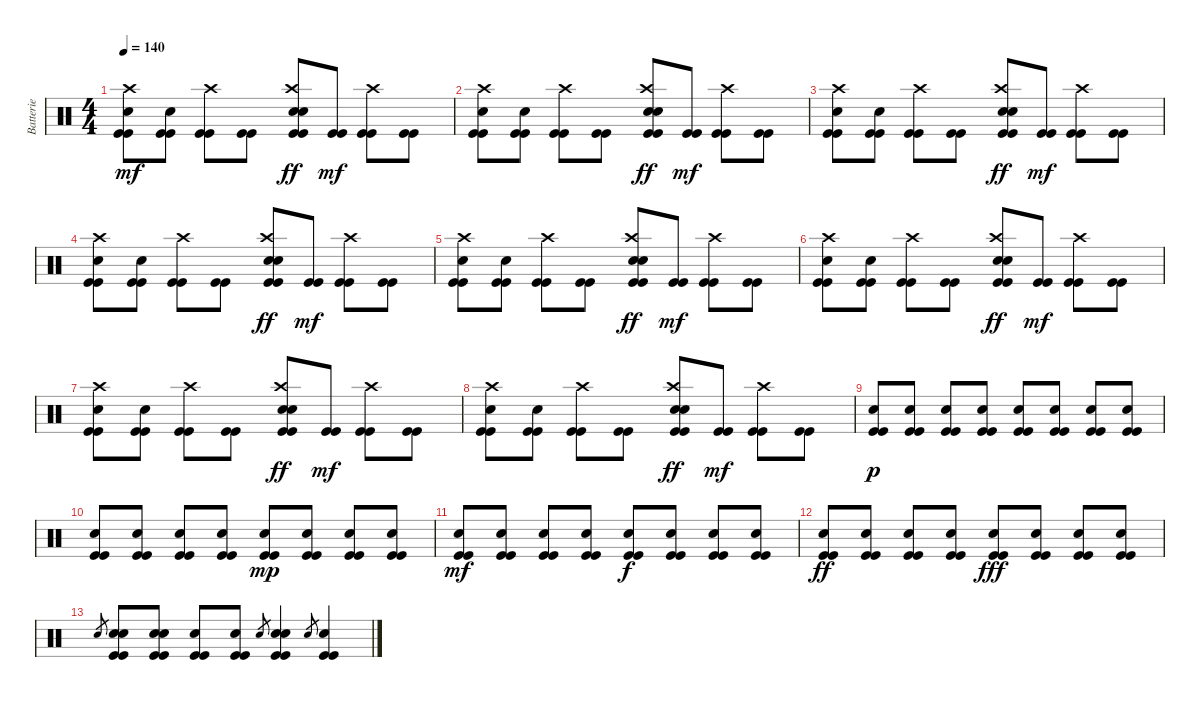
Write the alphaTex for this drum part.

\track ("Batterie " "Batterie ") {instrument percussion}
\staff {score}
\articulation defaults
\ts (4 4)
\tempo 140
\clef neutral
\ks c
("Kick (hit)" "Kick (hit)" "Snare (hit) 2" "Crash high (hit)").8{dy mf} ("Kick (hit)" "Kick (hit)" "Snare (hit) 2").8 ("Kick (hit)" "Kick (hit)" "Crash high (hit)").8 ("Kick (hit)" "Kick (hit)").8 ("Kick (hit)" "Kick (hit)" "Electric Snare (hit)" "Electric Snare (hit)" "Crash high (hit)").8{dy ff} ("Kick (hit)" "Kick (hit)").8{dy mf} ("Kick (hit)" "Kick (hit)" "Crash high (hit)").8 ("Kick (hit)" "Kick (hit)").8 |
("Kick (hit)" "Kick (hit)" "Snare (hit) 2" "Crash high (hit)").8 ("Kick (hit)" "Kick (hit)" "Snare (hit) 2").8 ("Kick (hit)" "Kick (hit)" "Crash high (hit)").8 ("Kick (hit)" "Kick (hit)").8 ("Kick (hit)" "Kick (hit)" "Electric Snare (hit)" "Electric Snare (hit)" "Crash high (hit)").8{dy ff} ("Kick (hit)" "Kick (hit)").8{dy mf} ("Kick (hit)" "Kick (hit)" "Crash high (hit)").8 ("Kick (hit)" "Kick (hit)").8 |
("Kick (hit)" "Kick (hit)" "Snare (hit) 2" "Crash high (hit)").8 ("Kick (hit)" "Kick (hit)" "Snare (hit) 2").8 ("Kick (hit)" "Kick (hit)" "Crash high (hit)").8 ("Kick (hit)" "Kick (hit)").8 ("Kick (hit)" "Kick (hit)" "Electric Snare (hit)" "Electric Snare (hit)" "Crash high (hit)").8{dy ff} ("Kick (hit)" "Kick (hit)").8{dy mf} ("Kick (hit)" "Kick (hit)" "Crash high (hit)").8 ("Kick (hit)" "Kick (hit)").8 |
("Kick (hit)" "Kick (hit)" "Snare (hit) 2" "Crash high (hit)").8 ("Kick (hit)" "Kick (hit)" "Snare (hit) 2").8 ("Kick (hit)" "Kick (hit)" "Crash high (hit)").8 ("Kick (hit)" "Kick (hit)").8 ("Kick (hit)" "Kick (hit)" "Electric Snare (hit)" "Electric Snare (hit)" "Crash high (hit)").8{dy ff} ("Kick (hit)" "Kick (hit)").8{dy mf} ("Kick (hit)" "Kick (hit)" "Crash high (hit)").8 ("Kick (hit)" "Kick (hit)").8 |
("Kick (hit)" "Kick (hit)" "Snare (hit) 2" "Crash high (hit)").8 ("Kick (hit)" "Kick (hit)" "Snare (hit) 2").8 ("Kick (hit)" "Kick (hit)" "Crash high (hit)").8 ("Kick (hit)" "Kick (hit)").8 ("Kick (hit)" "Kick (hit)" "Electric Snare (hit)" "Electric Snare (hit)" "Crash high (hit)").8{dy ff} ("Kick (hit)" "Kick (hit)").8{dy mf} ("Kick (hit)" "Kick (hit)" "Crash high (hit)").8 ("Kick (hit)" "Kick (hit)").8 |
("Kick (hit)" "Kick (hit)" "Snare (hit) 2" "Crash high (hit)").8 ("Kick (hit)" "Kick (hit)" "Snare (hit) 2").8 ("Kick (hit)" "Kick (hit)" "Crash high (hit)").8 ("Kick (hit)" "Kick (hit)").8 ("Kick (hit)" "Kick (hit)" "Electric Snare (hit)" "Electric Snare (hit)" "Crash high (hit)").8{dy ff} ("Kick (hit)" "Kick (hit)").8{dy mf} ("Kick (hit)" "Kick (hit)" "Crash high (hit)").8 ("Kick (hit)" "Kick (hit)").8 |
("Kick (hit)" "Kick (hit)" "Snare (hit) 2" "Crash high (hit)").8 ("Kick (hit)" "Kick (hit)" "Snare (hit) 2").8 ("Kick (hit)" "Kick (hit)" "Crash high (hit)").8 ("Kick (hit)" "Kick (hit)").8 ("Kick (hit)" "Kick (hit)" "Electric Snare (hit)" "Electric Snare (hit)" "Crash high (hit)").8{dy ff} ("Kick (hit)" "Kick (hit)").8{dy mf} ("Kick (hit)" "Kick (hit)" "Crash high (hit)").8 ("Kick (hit)" "Kick (hit)").8 |
("Kick (hit)" "Kick (hit)" "Snare (hit) 2" "Crash high (hit)").8 ("Kick (hit)" "Kick (hit)" "Snare (hit) 2").8 ("Kick (hit)" "Kick (hit)" "Crash high (hit)").8 ("Kick (hit)" "Kick (hit)").8 ("Kick (hit)" "Kick (hit)" "Electric Snare (hit)" "Electric Snare (hit)" "Crash high (hit)").8{dy ff} ("Kick (hit)" "Kick (hit)").8{dy mf} ("Kick (hit)" "Kick (hit)" "Crash high (hit)").8 ("Kick (hit)" "Kick (hit)").8 |
("Kick (hit)" "Kick (hit)" "Electric Snare (hit)").8{dy p} ("Kick (hit)" "Kick (hit)" "Electric Snare (hit)").8 ("Kick (hit)" "Kick (hit)" "Electric Snare (hit)").8 ("Kick (hit)" "Kick (hit)" "Electric Snare (hit)").8 ("Kick (hit)" "Kick (hit)" "Electric Snare (hit)").8 ("Kick (hit)" "Kick (hit)" "Electric Snare (hit)").8 ("Kick (hit)" "Kick (hit)" "Electric Snare (hit)").8 ("Kick (hit)" "Kick (hit)" "Electric Snare (hit)").8 |
("Kick (hit)" "Kick (hit)" "Electric Snare (hit)").8 ("Kick (hit)" "Kick (hit)" "Electric Snare (hit)").8 ("Kick (hit)" "Kick (hit)" "Electric Snare (hit)").8 ("Kick (hit)" "Kick (hit)" "Electric Snare (hit)").8 ("Kick (hit)" "Kick (hit)" "Electric Snare (hit)").8{dy mp} ("Kick (hit)" "Kick (hit)" "Electric Snare (hit)").8 ("Kick (hit)" "Kick (hit)" "Electric Snare (hit)").8 ("Kick (hit)" "Kick (hit)" "Electric Snare (hit)").8 |
("Kick (hit)" "Kick (hit)" "Electric Snare (hit)").8{dy mf} ("Kick (hit)" "Kick (hit)" "Electric Snare (hit)").8 ("Kick (hit)" "Kick (hit)" "Electric Snare (hit)").8 ("Kick (hit)" "Kick (hit)" "Electric Snare (hit)").8 ("Kick (hit)" "Kick (hit)" "Electric Snare (hit)").8{dy f} ("Kick (hit)" "Kick (hit)" "Electric Snare (hit)").8 ("Kick (hit)" "Kick (hit)" "Electric Snare (hit)").8 ("Kick (hit)" "Kick (hit)" "Electric Snare (hit)").8 |
("Kick (hit)" "Kick (hit)" "Electric Snare (hit)").8{dy ff} ("Kick (hit)" "Kick (hit)" "Electric Snare (hit)").8 ("Kick (hit)" "Kick (hit)" "Electric Snare (hit)").8 ("Kick (hit)" "Kick (hit)" "Electric Snare (hit)").8 ("Kick (hit)" "Kick (hit)" "Electric Snare (hit)").8{dy fff} ("Kick (hit)" "Kick (hit)" "Electric Snare (hit)").8 ("Kick (hit)" "Kick (hit)" "Electric Snare (hit)").8 ("Kick (hit)" "Kick (hit)" "Electric Snare (hit)").8 |
"Electric Snare (hit)".8{gr} ("Kick (hit)" "Kick (hit)" "Snare (hit) 2" "Electric Snare (hit)").8 ("Kick (hit)" "Kick (hit)" "Snare (hit) 2" "Electric Snare (hit)").8 ("Kick (hit)" "Kick (hit)" "Snare (hit) 2").8 ("Kick (hit)" "Kick (hit)" "Snare (hit) 2").8 "Electric Snare (hit)".8{gr} ("Kick (hit)" "Kick (hit)" "Snare (hit) 2" "Electric Snare (hit)").4 "Snare (hit) 2".8{gr} ("Kick (hit)" "Kick (hit)" "Snare (hit) 2").4
